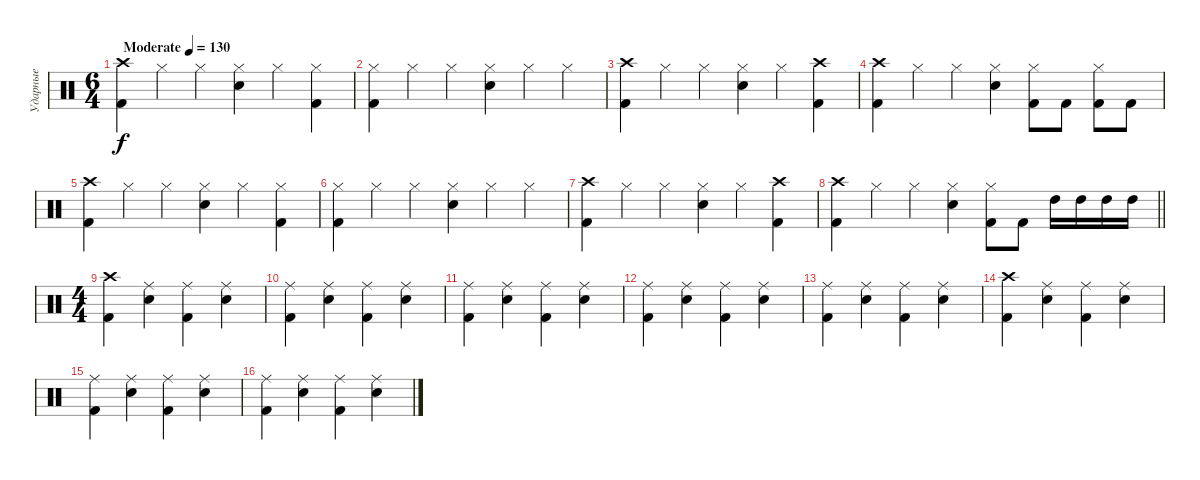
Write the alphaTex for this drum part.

\track ("Ударные" "Ударные") {instrument percussion}
\staff {score}
\articulation defaults
\ts (6 4)
\tempo (130 "Moderate")
\clef neutral
\ks c
("Crash high (hit)" "Kick (hit) 2").4{dy f} "Hi-Hat (closed)".4 "Hi-Hat (closed)".4 ("Hi-Hat (closed)" "Snare (hit) 2").4 "Hi-Hat (closed)".4 ("Hi-Hat (closed)" "Kick (hit) 2").4 |
("Hi-Hat (closed)" "Kick (hit) 2").4 "Hi-Hat (closed)".4 "Hi-Hat (closed)".4 ("Hi-Hat (closed)" "Snare (hit) 2").4 "Hi-Hat (closed)".4 "Hi-Hat (closed)".4 |
("Crash high (hit)" "Kick (hit) 2").4 "Hi-Hat (closed)".4 "Hi-Hat (closed)".4 ("Hi-Hat (closed)" "Snare (hit) 2").4 "Hi-Hat (closed)".4 ("Crash high (hit)" "Kick (hit) 2").4 |
("Crash high (hit)" "Kick (hit) 2").4 "Hi-Hat (closed)".4 "Hi-Hat (closed)".4 ("Hi-Hat (closed)" "Snare (hit) 2").4 ("Hi-Hat (closed)" "Kick (hit) 2").8 "Kick (hit) 2".8 ("Hi-Hat (closed)" "Kick (hit) 2").8 "Kick (hit) 2".8 |
("Crash high (hit)" "Kick (hit) 2").4 "Hi-Hat (closed)".4 "Hi-Hat (closed)".4 ("Hi-Hat (closed)" "Snare (hit) 2").4 "Hi-Hat (closed)".4 ("Hi-Hat (closed)" "Kick (hit) 2").4 |
("Hi-Hat (closed)" "Kick (hit) 2").4 "Hi-Hat (closed)".4 "Hi-Hat (closed)".4 ("Hi-Hat (closed)" "Snare (hit) 2").4 "Hi-Hat (closed)".4 "Hi-Hat (closed)".4 |
("Crash high (hit)" "Kick (hit) 2").4 "Hi-Hat (closed)".4 "Hi-Hat (closed)".4 ("Hi-Hat (closed)" "Snare (hit) 2").4 "Hi-Hat (closed)".4 ("Crash high (hit)" "Kick (hit) 2").4 |
\barLineRight lightlight
("Crash high (hit)" "Kick (hit) 2").4 "Hi-Hat (closed)".4 "Hi-Hat (closed)".4 ("Hi-Hat (closed)" "Snare (hit) 2").4 ("Hi-Hat (closed)" "Kick (hit) 2").8 "Kick (hit) 2".8 "High Tom (hit)".16 "High Tom (hit)".16 "High Tom (hit)".16 "High Tom (hit)".16 |
\ts (4 4)
("Crash high (hit)" "Kick (hit) 2").4 ("Ride (middle)" "Snare (hit) 2").4 ("Ride (middle)" "Kick (hit) 2").4 ("Ride (middle)" "Snare (hit) 2").4 |
("Ride (middle)" "Kick (hit) 2").4 ("Ride (middle)" "Snare (hit) 2").4 ("Ride (middle)" "Kick (hit) 2").4 ("Ride (middle)" "Snare (hit) 2").4 |
("Ride (middle)" "Kick (hit) 2").4 ("Ride (middle)" "Snare (hit) 2").4 ("Ride (middle)" "Kick (hit) 2").4 ("Ride (middle)" "Snare (hit) 2").4 |
("Ride (middle)" "Kick (hit) 2").4 ("Ride (middle)" "Snare (hit) 2").4 ("Ride (middle)" "Kick (hit) 2").4 ("Ride (middle)" "Snare (hit) 2").4 |
("Ride (middle)" "Kick (hit) 2").4 ("Ride (middle)" "Snare (hit) 2").4 ("Ride (middle)" "Kick (hit) 2").4 ("Ride (middle)" "Snare (hit) 2").4 |
("Crash high (hit)" "Kick (hit) 2").4 ("Ride (middle)" "Snare (hit) 2").4 ("Ride (middle)" "Kick (hit) 2").4 ("Ride (middle)" "Snare (hit) 2").4 |
("Ride (middle)" "Kick (hit) 2").4 ("Ride (middle)" "Snare (hit) 2").4 ("Ride (middle)" "Kick (hit) 2").4 ("Ride (middle)" "Snare (hit) 2").4 |
("Ride (middle)" "Kick (hit) 2").4 ("Ride (middle)" "Snare (hit) 2").4 ("Ride (middle)" "Kick (hit) 2").4 ("Ride (middle)" "Snare (hit) 2").4
